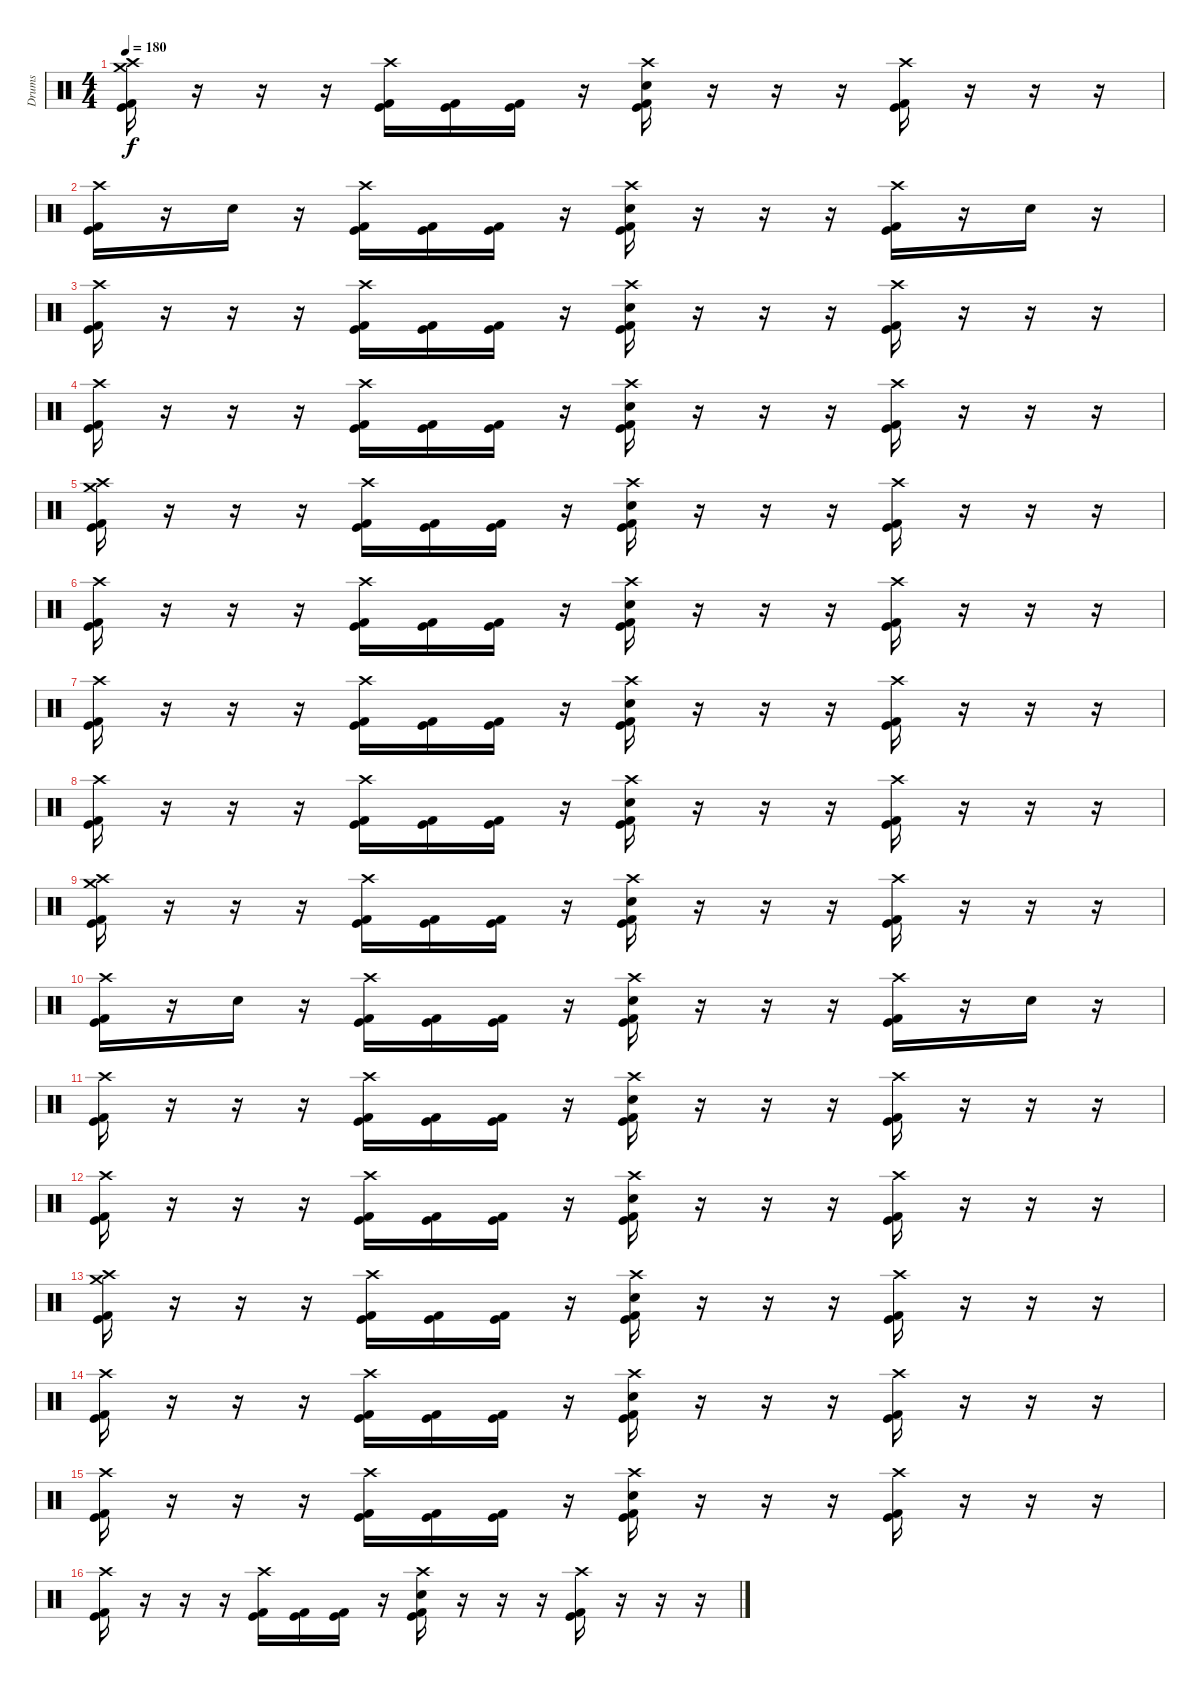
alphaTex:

\track ("Drums" "Drums") {instrument percussion}
\staff {score}
\articulation defaults
\ts (4 4)
\tempo 180
\clef neutral
\ks c
("Crash medium (hit)" "Crash high (hit)" "Kick (hit)" "Kick (hit) 2").16{dy f} r.16 r.16 r.16 ("Crash high (hit)" "Kick (hit)" "Kick (hit) 2").16 ("Kick (hit)" "Kick (hit) 2").16 ("Kick (hit)" "Kick (hit) 2").16 r.16 ("Crash high (hit)" "Snare (hit) 2" "Kick (hit)" "Kick (hit) 2").16 r.16 r.16 r.16 ("Crash high (hit)" "Kick (hit)" "Kick (hit) 2").16 r.16 r.16 r.16 |
("Crash high (hit)" "Kick (hit)" "Kick (hit) 2").16 r.16 "Snare (hit) 2".16 r.16 ("Crash high (hit)" "Kick (hit)" "Kick (hit) 2").16 ("Kick (hit)" "Kick (hit) 2").16 ("Kick (hit)" "Kick (hit) 2").16 r.16 ("Crash high (hit)" "Snare (hit) 2" "Kick (hit)" "Kick (hit) 2").16 r.16 r.16 r.16 ("Crash high (hit)" "Kick (hit)" "Kick (hit) 2").16 r.16 "Snare (hit) 2".16 r.16 |
("Crash high (hit)" "Kick (hit)" "Kick (hit) 2").16 r.16 r.16 r.16 ("Crash high (hit)" "Kick (hit)" "Kick (hit) 2").16 ("Kick (hit)" "Kick (hit) 2").16 ("Kick (hit)" "Kick (hit) 2").16 r.16 ("Crash high (hit)" "Snare (hit) 2" "Kick (hit)" "Kick (hit) 2").16 r.16 r.16 r.16 ("Crash high (hit)" "Kick (hit)" "Kick (hit) 2").16 r.16 r.16 r.16 |
("Crash high (hit)" "Kick (hit)" "Kick (hit) 2").16 r.16 r.16 r.16 ("Crash high (hit)" "Kick (hit)" "Kick (hit) 2").16 ("Kick (hit)" "Kick (hit) 2").16 ("Kick (hit)" "Kick (hit) 2").16 r.16 ("Crash high (hit)" "Snare (hit) 2" "Kick (hit)" "Kick (hit) 2").16 r.16 r.16 r.16 ("Crash high (hit)" "Kick (hit)" "Kick (hit) 2").16 r.16 r.16 r.16 |
("Crash medium (hit)" "Crash high (hit)" "Kick (hit)" "Kick (hit) 2").16 r.16 r.16 r.16 ("Crash high (hit)" "Kick (hit)" "Kick (hit) 2").16 ("Kick (hit)" "Kick (hit) 2").16 ("Kick (hit)" "Kick (hit) 2").16 r.16 ("Crash high (hit)" "Snare (hit) 2" "Kick (hit)" "Kick (hit) 2").16 r.16 r.16 r.16 ("Crash high (hit)" "Kick (hit)" "Kick (hit) 2").16 r.16 r.16 r.16 |
("Crash high (hit)" "Kick (hit)" "Kick (hit) 2").16 r.16 r.16 r.16 ("Crash high (hit)" "Kick (hit)" "Kick (hit) 2").16 ("Kick (hit)" "Kick (hit) 2").16 ("Kick (hit)" "Kick (hit) 2").16 r.16 ("Crash high (hit)" "Snare (hit) 2" "Kick (hit)" "Kick (hit) 2").16 r.16 r.16 r.16 ("Crash high (hit)" "Kick (hit)" "Kick (hit) 2").16 r.16 r.16 r.16 |
("Crash high (hit)" "Kick (hit)" "Kick (hit) 2").16 r.16 r.16 r.16 ("Crash high (hit)" "Kick (hit)" "Kick (hit) 2").16 ("Kick (hit)" "Kick (hit) 2").16 ("Kick (hit)" "Kick (hit) 2").16 r.16 ("Crash high (hit)" "Snare (hit) 2" "Kick (hit)" "Kick (hit) 2").16 r.16 r.16 r.16 ("Crash high (hit)" "Kick (hit)" "Kick (hit) 2").16 r.16 r.16 r.16 |
("Crash high (hit)" "Kick (hit)" "Kick (hit) 2").16 r.16 r.16 r.16 ("Crash high (hit)" "Kick (hit)" "Kick (hit) 2").16 ("Kick (hit)" "Kick (hit) 2").16 ("Kick (hit)" "Kick (hit) 2").16 r.16 ("Crash high (hit)" "Snare (hit) 2" "Kick (hit)" "Kick (hit) 2").16 r.16 r.16 r.16 ("Crash high (hit)" "Kick (hit)" "Kick (hit) 2").16 r.16 r.16 r.16 |
("Crash medium (hit)" "Crash high (hit)" "Kick (hit)" "Kick (hit) 2").16 r.16 r.16 r.16 ("Crash high (hit)" "Kick (hit)" "Kick (hit) 2").16 ("Kick (hit)" "Kick (hit) 2").16 ("Kick (hit)" "Kick (hit) 2").16 r.16 ("Crash high (hit)" "Snare (hit) 2" "Kick (hit)" "Kick (hit) 2").16 r.16 r.16 r.16 ("Crash high (hit)" "Kick (hit)" "Kick (hit) 2").16 r.16 r.16 r.16 |
("Crash high (hit)" "Kick (hit)" "Kick (hit) 2").16 r.16 "Snare (hit) 2".16 r.16 ("Crash high (hit)" "Kick (hit)" "Kick (hit) 2").16 ("Kick (hit)" "Kick (hit) 2").16 ("Kick (hit)" "Kick (hit) 2").16 r.16 ("Crash high (hit)" "Snare (hit) 2" "Kick (hit)" "Kick (hit) 2").16 r.16 r.16 r.16 ("Crash high (hit)" "Kick (hit)" "Kick (hit) 2").16 r.16 "Snare (hit) 2".16 r.16 |
("Crash high (hit)" "Kick (hit)" "Kick (hit) 2").16 r.16 r.16 r.16 ("Crash high (hit)" "Kick (hit)" "Kick (hit) 2").16 ("Kick (hit)" "Kick (hit) 2").16 ("Kick (hit)" "Kick (hit) 2").16 r.16 ("Crash high (hit)" "Snare (hit) 2" "Kick (hit)" "Kick (hit) 2").16 r.16 r.16 r.16 ("Crash high (hit)" "Kick (hit)" "Kick (hit) 2").16 r.16 r.16 r.16 |
("Crash high (hit)" "Kick (hit)" "Kick (hit) 2").16 r.16 r.16 r.16 ("Crash high (hit)" "Kick (hit)" "Kick (hit) 2").16 ("Kick (hit)" "Kick (hit) 2").16 ("Kick (hit)" "Kick (hit) 2").16 r.16 ("Crash high (hit)" "Snare (hit) 2" "Kick (hit)" "Kick (hit) 2").16 r.16 r.16 r.16 ("Crash high (hit)" "Kick (hit)" "Kick (hit) 2").16 r.16 r.16 r.16 |
("Crash medium (hit)" "Crash high (hit)" "Kick (hit)" "Kick (hit) 2").16 r.16 r.16 r.16 ("Crash high (hit)" "Kick (hit)" "Kick (hit) 2").16 ("Kick (hit)" "Kick (hit) 2").16 ("Kick (hit)" "Kick (hit) 2").16 r.16 ("Crash high (hit)" "Snare (hit) 2" "Kick (hit)" "Kick (hit) 2").16 r.16 r.16 r.16 ("Crash high (hit)" "Kick (hit)" "Kick (hit) 2").16 r.16 r.16 r.16 |
("Crash high (hit)" "Kick (hit)" "Kick (hit) 2").16 r.16 r.16 r.16 ("Crash high (hit)" "Kick (hit)" "Kick (hit) 2").16 ("Kick (hit)" "Kick (hit) 2").16 ("Kick (hit)" "Kick (hit) 2").16 r.16 ("Crash high (hit)" "Snare (hit) 2" "Kick (hit)" "Kick (hit) 2").16 r.16 r.16 r.16 ("Crash high (hit)" "Kick (hit)" "Kick (hit) 2").16 r.16 r.16 r.16 |
("Crash high (hit)" "Kick (hit)" "Kick (hit) 2").16 r.16 r.16 r.16 ("Crash high (hit)" "Kick (hit)" "Kick (hit) 2").16 ("Kick (hit)" "Kick (hit) 2").16 ("Kick (hit)" "Kick (hit) 2").16 r.16 ("Crash high (hit)" "Snare (hit) 2" "Kick (hit)" "Kick (hit) 2").16 r.16 r.16 r.16 ("Crash high (hit)" "Kick (hit)" "Kick (hit) 2").16 r.16 r.16 r.16 |
("Crash high (hit)" "Kick (hit)" "Kick (hit) 2").16 r.16 r.16 r.16 ("Crash high (hit)" "Kick (hit)" "Kick (hit) 2").16 ("Kick (hit)" "Kick (hit) 2").16 ("Kick (hit)" "Kick (hit) 2").16 r.16 ("Crash high (hit)" "Snare (hit) 2" "Kick (hit)" "Kick (hit) 2").16 r.16 r.16 r.16 ("Crash high (hit)" "Kick (hit)" "Kick (hit) 2").16 r.16 r.16 r.16
